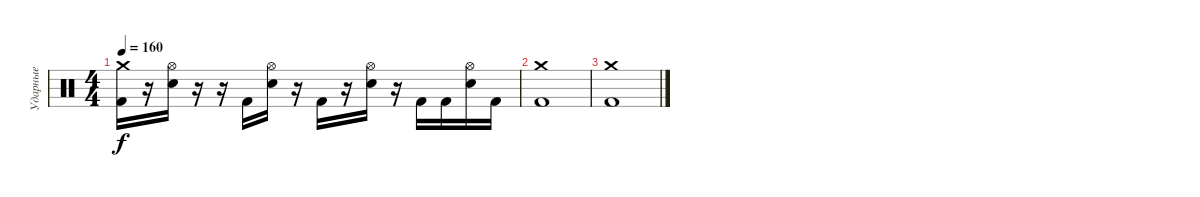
\track ("Ударные" "Ударные") {instrument percussion}
\staff {score}
\articulation defaults
\ts (4 4)
\tempo 160
\clef neutral
\ks c
("Crash medium (hit)" "Kick (hit) 2").16{dy f} r.16 ("Hi-Hat (open)" "Electric Snare (hit)").16 r.16 r.16 "Kick (hit) 2".16 ("Hi-Hat (open)" "Electric Snare (hit)").16 r.16 "Kick (hit) 2".16 r.16 ("Hi-Hat (open)" "Electric Snare (hit)").16 r.16 "Kick (hit) 2".16 "Kick (hit) 2".16 ("Hi-Hat (open)" "Electric Snare (hit)").16 "Kick (hit) 2".16 |
("Crash medium (hit)" "Kick (hit) 2").1 |
("Crash medium (hit)" "Kick (hit) 2").1
